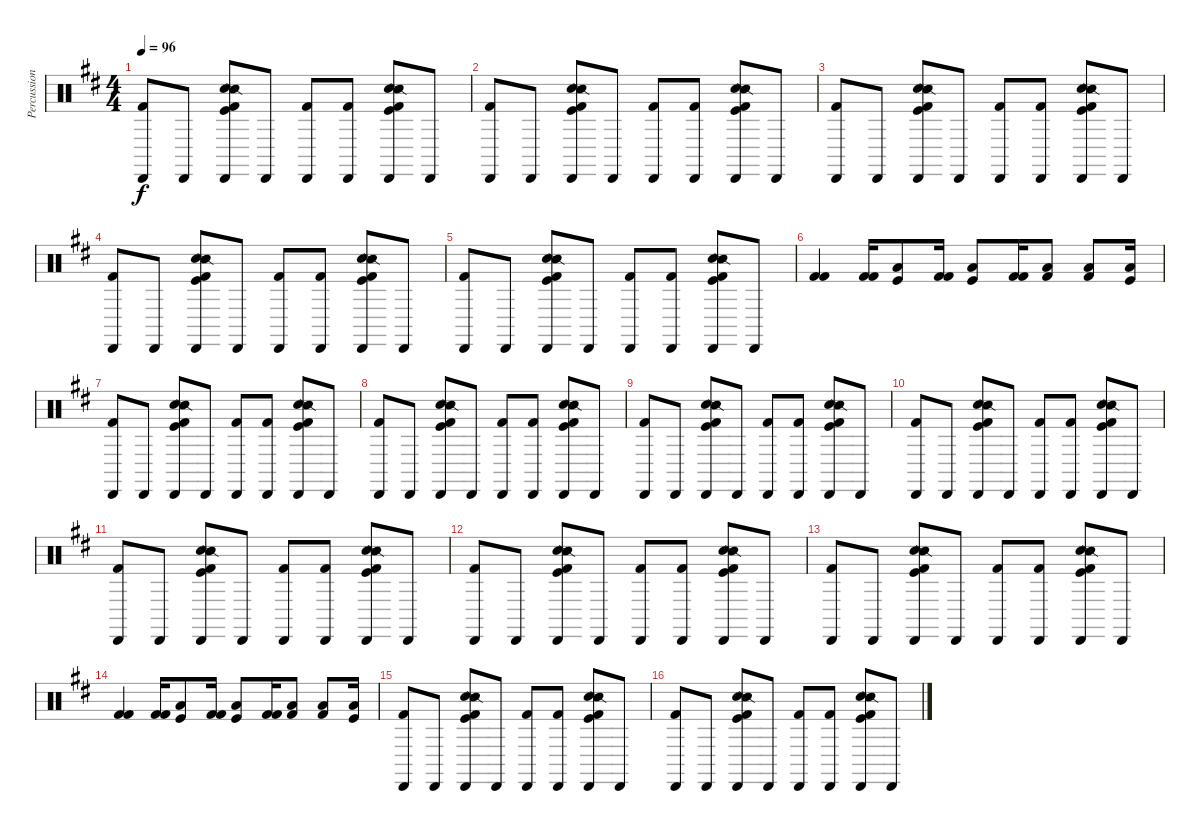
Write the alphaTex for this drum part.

\track ("Percussion" "Percussion") {instrument percussion}
\staff {score}
\articulation defaults
\ts (4 4)
\tempo 96
\clef neutral
\ks bminor
("Kick (hit) 2" "Cabasa (hit)").8{dy f} "Cabasa (hit)".8 ("Hand Clap (hit)" "Snare (side stick) 2" "Kick (hit) 2" "Kick (hit)" "Cabasa (hit)").8 "Cabasa (hit)".8 ("Kick (hit) 2" "Cabasa (hit)").8 ("Kick (hit) 2" "Cabasa (hit)").8 ("Hand Clap (hit)" "Snare (side stick) 2" "Kick (hit) 2" "Kick (hit)" "Cabasa (hit)").8 "Cabasa (hit)".8 |
("Kick (hit) 2" "Cabasa (hit)").8 "Cabasa (hit)".8 ("Hand Clap (hit)" "Snare (side stick) 2" "Kick (hit) 2" "Kick (hit)" "Cabasa (hit)").8 "Cabasa (hit)".8 ("Kick (hit) 2" "Cabasa (hit)").8 ("Kick (hit) 2" "Cabasa (hit)").8 ("Hand Clap (hit)" "Snare (side stick) 2" "Kick (hit) 2" "Kick (hit)" "Cabasa (hit)").8 "Cabasa (hit)".8 |
("Kick (hit) 2" "Cabasa (hit)").8 "Cabasa (hit)".8 ("Hand Clap (hit)" "Snare (side stick) 2" "Kick (hit) 2" "Kick (hit)" "Cabasa (hit)").8 "Cabasa (hit)".8 ("Kick (hit) 2" "Cabasa (hit)").8 ("Kick (hit) 2" "Cabasa (hit)").8 ("Hand Clap (hit)" "Snare (side stick) 2" "Kick (hit) 2" "Kick (hit)" "Cabasa (hit)").8 "Cabasa (hit)".8 |
("Kick (hit) 2" "Cabasa (hit)").8 "Cabasa (hit)".8 ("Hand Clap (hit)" "Snare (side stick) 2" "Kick (hit) 2" "Kick (hit)" "Cabasa (hit)").8 "Cabasa (hit)".8 ("Kick (hit) 2" "Cabasa (hit)").8 ("Kick (hit) 2" "Cabasa (hit)").8 ("Hand Clap (hit)" "Snare (side stick) 2" "Kick (hit) 2" "Kick (hit)" "Cabasa (hit)").8 "Cabasa (hit)".8 |
("Kick (hit) 2" "Cabasa (hit)").8 "Cabasa (hit)".8 ("Hand Clap (hit)" "Snare (side stick) 2" "Kick (hit) 2" "Kick (hit)" "Cabasa (hit)").8 "Cabasa (hit)".8 ("Kick (hit) 2" "Cabasa (hit)").8 ("Kick (hit) 2" "Cabasa (hit)").8 ("Hand Clap (hit)" "Snare (side stick) 2" "Kick (hit) 2" "Kick (hit)" "Cabasa (hit)").8 "Cabasa (hit)".8 |
("Kick (hit) 2" "Kick (hit) 2").4 ("Kick (hit) 2" "Kick (hit) 2").16 ("Low Floor Tom (hit)" "Kick (hit)").8 ("Kick (hit) 2" "Kick (hit) 2").16 ("Low Floor Tom (hit)" "Kick (hit)").8 ("Kick (hit) 2" "Kick (hit) 2").16 ("Low Floor Tom (hit)" "Kick (hit) 2").8 ("Low Floor Tom (hit)" "Kick (hit) 2").8 ("Low Floor Tom (hit)" "Kick (hit)").16 |
("Kick (hit) 2" "Cabasa (hit)").8 "Cabasa (hit)".8 ("Hand Clap (hit)" "Snare (side stick) 2" "Kick (hit) 2" "Kick (hit)" "Cabasa (hit)").8 "Cabasa (hit)".8 ("Kick (hit) 2" "Cabasa (hit)").8 ("Kick (hit) 2" "Cabasa (hit)").8 ("Hand Clap (hit)" "Snare (side stick) 2" "Kick (hit) 2" "Kick (hit)" "Cabasa (hit)").8 "Cabasa (hit)".8 |
("Kick (hit) 2" "Cabasa (hit)").8 "Cabasa (hit)".8 ("Hand Clap (hit)" "Snare (side stick) 2" "Kick (hit) 2" "Kick (hit)" "Cabasa (hit)").8 "Cabasa (hit)".8 ("Kick (hit) 2" "Cabasa (hit)").8 ("Kick (hit) 2" "Cabasa (hit)").8 ("Hand Clap (hit)" "Snare (side stick) 2" "Kick (hit) 2" "Kick (hit)" "Cabasa (hit)").8 "Cabasa (hit)".8 |
("Kick (hit) 2" "Cabasa (hit)").8 "Cabasa (hit)".8 ("Hand Clap (hit)" "Snare (side stick) 2" "Kick (hit) 2" "Kick (hit)" "Cabasa (hit)").8 "Cabasa (hit)".8 ("Kick (hit) 2" "Cabasa (hit)").8 ("Kick (hit) 2" "Cabasa (hit)").8 ("Hand Clap (hit)" "Snare (side stick) 2" "Kick (hit) 2" "Kick (hit)" "Cabasa (hit)").8 "Cabasa (hit)".8 |
("Kick (hit) 2" "Cabasa (hit)").8 "Cabasa (hit)".8 ("Hand Clap (hit)" "Snare (side stick) 2" "Kick (hit) 2" "Kick (hit)" "Cabasa (hit)").8 "Cabasa (hit)".8 ("Kick (hit) 2" "Cabasa (hit)").8 ("Kick (hit) 2" "Cabasa (hit)").8 ("Hand Clap (hit)" "Snare (side stick) 2" "Kick (hit) 2" "Kick (hit)" "Cabasa (hit)").8 "Cabasa (hit)".8 |
("Kick (hit) 2" "Cabasa (hit)").8 "Cabasa (hit)".8 ("Hand Clap (hit)" "Snare (side stick) 2" "Kick (hit) 2" "Kick (hit)" "Cabasa (hit)").8 "Cabasa (hit)".8 ("Kick (hit) 2" "Cabasa (hit)").8 ("Kick (hit) 2" "Cabasa (hit)").8 ("Hand Clap (hit)" "Snare (side stick) 2" "Kick (hit) 2" "Kick (hit)" "Cabasa (hit)").8 "Cabasa (hit)".8 |
("Kick (hit) 2" "Cabasa (hit)").8 "Cabasa (hit)".8 ("Hand Clap (hit)" "Snare (side stick) 2" "Kick (hit) 2" "Kick (hit)" "Cabasa (hit)").8 "Cabasa (hit)".8 ("Kick (hit) 2" "Cabasa (hit)").8 ("Kick (hit) 2" "Cabasa (hit)").8 ("Hand Clap (hit)" "Snare (side stick) 2" "Kick (hit) 2" "Kick (hit)" "Cabasa (hit)").8 "Cabasa (hit)".8 |
("Kick (hit) 2" "Cabasa (hit)").8 "Cabasa (hit)".8 ("Hand Clap (hit)" "Snare (side stick) 2" "Kick (hit) 2" "Kick (hit)" "Cabasa (hit)").8 "Cabasa (hit)".8 ("Kick (hit) 2" "Cabasa (hit)").8 ("Kick (hit) 2" "Cabasa (hit)").8 ("Hand Clap (hit)" "Snare (side stick) 2" "Kick (hit) 2" "Kick (hit)" "Cabasa (hit)").8 "Cabasa (hit)".8 |
("Kick (hit) 2" "Kick (hit) 2").4 ("Kick (hit) 2" "Kick (hit) 2").16 ("Low Floor Tom (hit)" "Kick (hit)").8 ("Kick (hit) 2" "Kick (hit) 2").16 ("Low Floor Tom (hit)" "Kick (hit)").8 ("Kick (hit) 2" "Kick (hit) 2").16 ("Low Floor Tom (hit)" "Kick (hit) 2").8 ("Low Floor Tom (hit)" "Kick (hit) 2").8 ("Low Floor Tom (hit)" "Kick (hit)").16 |
("Kick (hit) 2" "Cabasa (hit)").8 "Cabasa (hit)".8 ("Hand Clap (hit)" "Snare (side stick) 2" "Kick (hit) 2" "Kick (hit)" "Cabasa (hit)").8 "Cabasa (hit)".8 ("Kick (hit) 2" "Cabasa (hit)").8 ("Kick (hit) 2" "Cabasa (hit)").8 ("Hand Clap (hit)" "Snare (side stick) 2" "Kick (hit) 2" "Kick (hit)" "Cabasa (hit)").8 "Cabasa (hit)".8 |
("Kick (hit) 2" "Cabasa (hit)").8 "Cabasa (hit)".8 ("Hand Clap (hit)" "Snare (side stick) 2" "Kick (hit) 2" "Kick (hit)" "Cabasa (hit)").8 "Cabasa (hit)".8 ("Kick (hit) 2" "Cabasa (hit)").8 ("Kick (hit) 2" "Cabasa (hit)").8 ("Hand Clap (hit)" "Snare (side stick) 2" "Kick (hit) 2" "Kick (hit)" "Cabasa (hit)").8 "Cabasa (hit)".8
